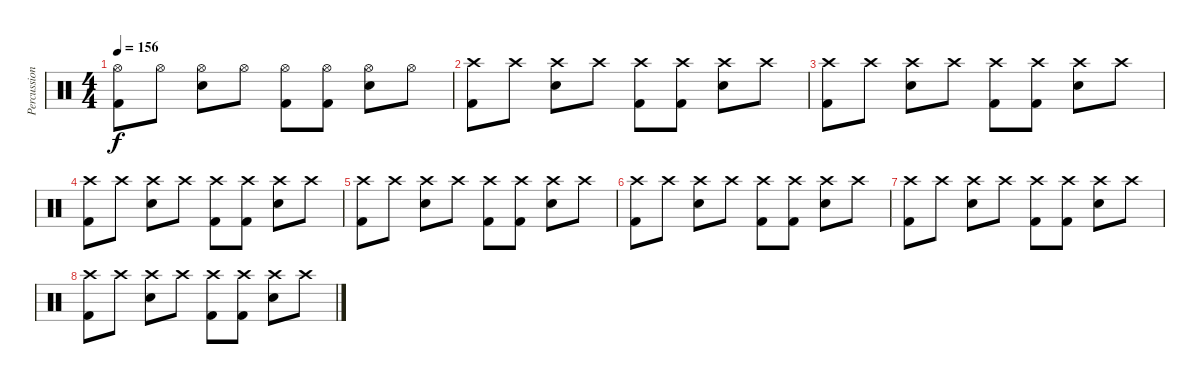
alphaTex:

\track ("Percussion" "Percussion") {instrument percussion}
\staff {score}
\articulation defaults
\ts (4 4)
\tempo 156
\clef neutral
\ks c
("Hi-Hat (open)" "Kick (hit) 2").8{dy f} "Hi-Hat (open)".8 ("Hi-Hat (open)" "Snare (hit) 2").8 "Hi-Hat (open)".8 ("Hi-Hat (open)" "Kick (hit) 2").8 ("Hi-Hat (open)" "Kick (hit) 2").8 ("Hi-Hat (open)" "Snare (hit) 2").8 "Hi-Hat (open)".8 |
("Crash high (hit)" "Kick (hit) 2").8 "Crash high (hit)".8 ("Crash high (hit)" "Snare (hit) 2").8 "Crash high (hit)".8 ("Crash high (hit)" "Kick (hit) 2").8 ("Crash high (hit)" "Kick (hit) 2").8 ("Crash high (hit)" "Snare (hit) 2").8 "Crash high (hit)".8 |
("Crash high (hit)" "Kick (hit) 2").8 "Crash high (hit)".8 ("Crash high (hit)" "Snare (hit) 2").8 "Crash high (hit)".8 ("Crash high (hit)" "Kick (hit) 2").8 ("Crash high (hit)" "Kick (hit) 2").8 ("Crash high (hit)" "Snare (hit) 2").8 "Crash high (hit)".8 |
("Crash high (hit)" "Kick (hit) 2").8 "Crash high (hit)".8 ("Crash high (hit)" "Snare (hit) 2").8 "Crash high (hit)".8 ("Crash high (hit)" "Kick (hit) 2").8 ("Crash high (hit)" "Kick (hit) 2").8 ("Crash high (hit)" "Snare (hit) 2").8 "Crash high (hit)".8 |
("Crash high (hit)" "Kick (hit) 2").8 "Crash high (hit)".8 ("Crash high (hit)" "Snare (hit) 2").8 "Crash high (hit)".8 ("Crash high (hit)" "Kick (hit) 2").8 ("Crash high (hit)" "Kick (hit) 2").8 ("Crash high (hit)" "Snare (hit) 2").8 "Crash high (hit)".8 |
("Crash high (hit)" "Kick (hit) 2").8 "Crash high (hit)".8 ("Crash high (hit)" "Snare (hit) 2").8 "Crash high (hit)".8 ("Crash high (hit)" "Kick (hit) 2").8 ("Crash high (hit)" "Kick (hit) 2").8 ("Crash high (hit)" "Snare (hit) 2").8 "Crash high (hit)".8 |
("Crash high (hit)" "Kick (hit) 2").8 "Crash high (hit)".8 ("Crash high (hit)" "Snare (hit) 2").8 "Crash high (hit)".8 ("Crash high (hit)" "Kick (hit) 2").8 ("Crash high (hit)" "Kick (hit) 2").8 ("Crash high (hit)" "Snare (hit) 2").8 "Crash high (hit)".8 |
("Crash high (hit)" "Kick (hit) 2").8 "Crash high (hit)".8 ("Crash high (hit)" "Snare (hit) 2").8 "Crash high (hit)".8 ("Crash high (hit)" "Kick (hit) 2").8 ("Crash high (hit)" "Kick (hit) 2").8 ("Crash high (hit)" "Snare (hit) 2").8 "Crash high (hit)".8
